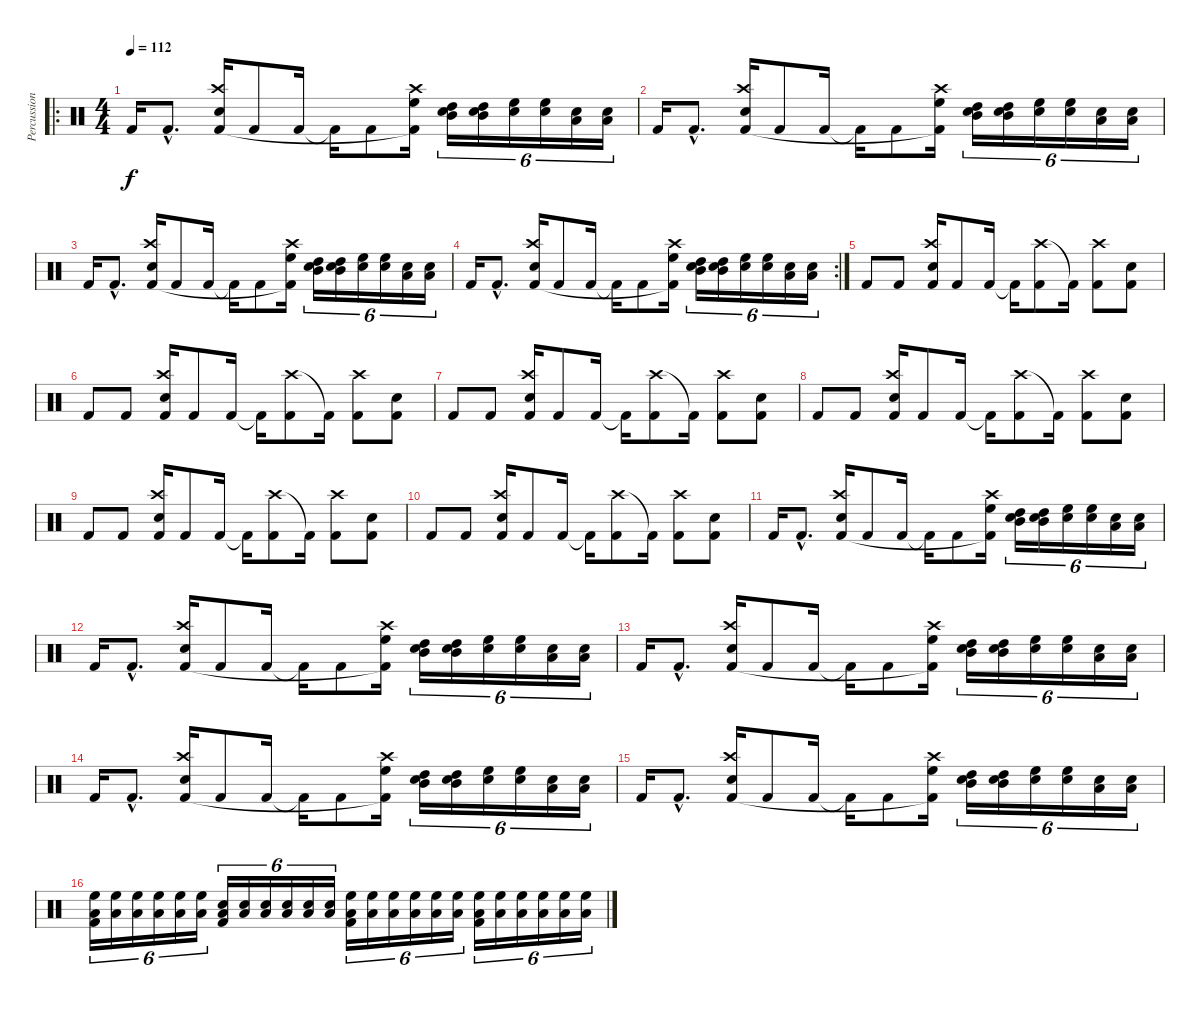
\track ("Percussion" "Percussion") {instrument percussion}
\staff {score}
\articulation defaults
\ro
\ts (4 4)
\tempo 112
\clef neutral
\ks c "Kick (hit) 2".16{dy f} "Kick (hit) 2"{hac}.8{d}
("Crash high (hit)" "Snare (hit) 2" "Kick (hit) 2").16 "Kick (hit) 2".8 "Kick (hit) 2".16 "Kick (hit) 2"{t}.16 "Kick (hit) 2".8 ("Crash high (hit)" "High Floor Tom (hit)" "Kick (hit) 2"{t}).16 ("Snare (hit) 2" "High Tom (hit)" "Mid Tom (hit)").16{tu (6 4)} ("Snare (hit) 2" "High Tom (hit)" "Mid Tom (hit)").16{tu (6 4)} ("Snare (hit) 2" "High Floor Tom (hit)").16{tu (6 4)} ("Snare (hit) 2" "High Floor Tom (hit)").16{tu (6 4)} ("Snare (hit) 2" "Low Tom (hit)").16{tu (6 4)} ("Snare (hit) 2" "Low Tom (hit)").16{tu (6 4)} |
"Kick (hit) 2".16 "Kick (hit) 2"{hac}.8{d} ("Crash high (hit)" "Snare (hit) 2" "Kick (hit) 2").16 "Kick (hit) 2".8 "Kick (hit) 2".16 "Kick (hit) 2"{t}.16 "Kick (hit) 2".8 ("Crash high (hit)" "High Floor Tom (hit)" "Kick (hit) 2"{t}).16 ("Snare (hit) 2" "High Tom (hit)" "Mid Tom (hit)").16{tu (6 4)} ("Snare (hit) 2" "High Tom (hit)" "Mid Tom (hit)").16{tu (6 4)} ("Snare (hit) 2" "High Floor Tom (hit)").16{tu (6 4)} ("Snare (hit) 2" "High Floor Tom (hit)").16{tu (6 4)} ("Snare (hit) 2" "Low Tom (hit)").16{tu (6 4)} ("Snare (hit) 2" "Low Tom (hit)").16{tu (6 4)} |
"Kick (hit) 2".16 "Kick (hit) 2"{hac}.8{d} ("Crash high (hit)" "Snare (hit) 2" "Kick (hit) 2").16 "Kick (hit) 2".8 "Kick (hit) 2".16 "Kick (hit) 2"{t}.16 "Kick (hit) 2".8 ("Crash high (hit)" "High Floor Tom (hit)" "Kick (hit) 2"{t}).16 ("Snare (hit) 2" "High Tom (hit)" "Mid Tom (hit)").16{tu (6 4)} ("Snare (hit) 2" "High Tom (hit)" "Mid Tom (hit)").16{tu (6 4)} ("Snare (hit) 2" "High Floor Tom (hit)").16{tu (6 4)} ("Snare (hit) 2" "High Floor Tom (hit)").16{tu (6 4)} ("Snare (hit) 2" "Low Tom (hit)").16{tu (6 4)} ("Snare (hit) 2" "Low Tom (hit)").16{tu (6 4)} |
\rc 2 "Kick (hit) 2".16 "Kick (hit) 2"{hac}.8{d}
("Crash high (hit)" "Snare (hit) 2" "Kick (hit) 2").16 "Kick (hit) 2".8 "Kick (hit) 2".16 "Kick (hit) 2"{t}.16 "Kick (hit) 2".8 ("Crash high (hit)" "High Floor Tom (hit)" "Kick (hit) 2"{t}).16 ("Snare (hit) 2" "High Tom (hit)" "Mid Tom (hit)").16{tu (6 4)} ("Snare (hit) 2" "High Tom (hit)" "Mid Tom (hit)").16{tu (6 4)} ("Snare (hit) 2" "High Floor Tom (hit)").16{tu (6 4)} ("Snare (hit) 2" "High Floor Tom (hit)").16{tu (6 4)} ("Snare (hit) 2" "Low Tom (hit)").16{tu (6 4)} ("Snare (hit) 2" "Low Tom (hit)").16{tu (6 4)} |
"Kick (hit) 2".8 "Kick (hit) 2".8 ("Crash high (hit)" "Snare (hit) 2" "Kick (hit) 2").16 "Kick (hit) 2".8 "Kick (hit) 2".16 "Kick (hit) 2"{t}.16 ("Crash high (hit)" "Kick (hit) 2").8 "Kick (hit) 2"{t}.16 ("Crash high (hit)" "Kick (hit) 2").8 ("Snare (hit) 2" "Kick (hit) 2").8 |
"Kick (hit) 2".8 "Kick (hit) 2".8 ("Crash high (hit)" "Snare (hit) 2" "Kick (hit) 2").16 "Kick (hit) 2".8 "Kick (hit) 2".16 "Kick (hit) 2"{t}.16 ("Crash high (hit)" "Kick (hit) 2").8 "Kick (hit) 2"{t}.16 ("Crash high (hit)" "Kick (hit) 2").8 ("Snare (hit) 2" "Kick (hit) 2").8 |
"Kick (hit) 2".8 "Kick (hit) 2".8 ("Crash high (hit)" "Snare (hit) 2" "Kick (hit) 2").16 "Kick (hit) 2".8 "Kick (hit) 2".16 "Kick (hit) 2"{t}.16 ("Crash high (hit)" "Kick (hit) 2").8 "Kick (hit) 2"{t}.16 ("Crash high (hit)" "Kick (hit) 2").8 ("Snare (hit) 2" "Kick (hit) 2").8 |
"Kick (hit) 2".8 "Kick (hit) 2".8 ("Crash high (hit)" "Snare (hit) 2" "Kick (hit) 2").16 "Kick (hit) 2".8 "Kick (hit) 2".16 "Kick (hit) 2"{t}.16 ("Crash high (hit)" "Kick (hit) 2").8 "Kick (hit) 2"{t}.16 ("Crash high (hit)" "Kick (hit) 2").8 ("Snare (hit) 2" "Kick (hit) 2").8 |
"Kick (hit) 2".8 "Kick (hit) 2".8 ("Crash high (hit)" "Snare (hit) 2" "Kick (hit) 2").16 "Kick (hit) 2".8 "Kick (hit) 2".16 "Kick (hit) 2"{t}.16 ("Crash high (hit)" "Kick (hit) 2").8 "Kick (hit) 2"{t}.16 ("Crash high (hit)" "Kick (hit) 2").8 ("Snare (hit) 2" "Kick (hit) 2").8 |
"Kick (hit) 2".8 "Kick (hit) 2".8 ("Crash high (hit)" "Snare (hit) 2" "Kick (hit) 2").16 "Kick (hit) 2".8 "Kick (hit) 2".16 "Kick (hit) 2"{t}.16 ("Crash high (hit)" "Kick (hit) 2").8 "Kick (hit) 2"{t}.16 ("Crash high (hit)" "Kick (hit) 2").8 ("Snare (hit) 2" "Kick (hit) 2").8 |
"Kick (hit) 2".16 "Kick (hit) 2"{hac}.8{d} ("Crash high (hit)" "Snare (hit) 2" "Kick (hit) 2").16 "Kick (hit) 2".8 "Kick (hit) 2".16 "Kick (hit) 2"{t}.16 "Kick (hit) 2".8 ("Crash high (hit)" "High Floor Tom (hit)" "Kick (hit) 2"{t}).16 ("Snare (hit) 2" "High Tom (hit)" "Mid Tom (hit)").16{tu (6 4)} ("Snare (hit) 2" "High Tom (hit)" "Mid Tom (hit)").16{tu (6 4)} ("Snare (hit) 2" "High Floor Tom (hit)").16{tu (6 4)} ("Snare (hit) 2" "High Floor Tom (hit)").16{tu (6 4)} ("Snare (hit) 2" "Low Tom (hit)").16{tu (6 4)} ("Snare (hit) 2" "Low Tom (hit)").16{tu (6 4)} |
"Kick (hit) 2".16 "Kick (hit) 2"{hac}.8{d} ("Crash high (hit)" "Snare (hit) 2" "Kick (hit) 2").16 "Kick (hit) 2".8 "Kick (hit) 2".16 "Kick (hit) 2"{t}.16 "Kick (hit) 2".8 ("Crash high (hit)" "High Floor Tom (hit)" "Kick (hit) 2"{t}).16 ("Snare (hit) 2" "High Tom (hit)" "Mid Tom (hit)").16{tu (6 4)} ("Snare (hit) 2" "High Tom (hit)" "Mid Tom (hit)").16{tu (6 4)} ("Snare (hit) 2" "High Floor Tom (hit)").16{tu (6 4)} ("Snare (hit) 2" "High Floor Tom (hit)").16{tu (6 4)} ("Snare (hit) 2" "Low Tom (hit)").16{tu (6 4)} ("Snare (hit) 2" "Low Tom (hit)").16{tu (6 4)} |
"Kick (hit) 2".16 "Kick (hit) 2"{hac}.8{d} ("Crash high (hit)" "Snare (hit) 2" "Kick (hit) 2").16 "Kick (hit) 2".8 "Kick (hit) 2".16 "Kick (hit) 2"{t}.16 "Kick (hit) 2".8 ("Crash high (hit)" "High Floor Tom (hit)" "Kick (hit) 2"{t}).16 ("Snare (hit) 2" "High Tom (hit)" "Mid Tom (hit)").16{tu (6 4)} ("Snare (hit) 2" "High Tom (hit)" "Mid Tom (hit)").16{tu (6 4)} ("Snare (hit) 2" "High Floor Tom (hit)").16{tu (6 4)} ("Snare (hit) 2" "High Floor Tom (hit)").16{tu (6 4)} ("Snare (hit) 2" "Low Tom (hit)").16{tu (6 4)} ("Snare (hit) 2" "Low Tom (hit)").16{tu (6 4)} |
"Kick (hit) 2".16 "Kick (hit) 2"{hac}.8{d} ("Crash high (hit)" "Snare (hit) 2" "Kick (hit) 2").16 "Kick (hit) 2".8 "Kick (hit) 2".16 "Kick (hit) 2"{t}.16 "Kick (hit) 2".8 ("Crash high (hit)" "High Floor Tom (hit)" "Kick (hit) 2"{t}).16 ("Snare (hit) 2" "High Tom (hit)" "Mid Tom (hit)").16{tu (6 4)} ("Snare (hit) 2" "High Tom (hit)" "Mid Tom (hit)").16{tu (6 4)} ("Snare (hit) 2" "High Floor Tom (hit)").16{tu (6 4)} ("Snare (hit) 2" "High Floor Tom (hit)").16{tu (6 4)} ("Snare (hit) 2" "Low Tom (hit)").16{tu (6 4)} ("Snare (hit) 2" "Low Tom (hit)").16{tu (6 4)} |
"Kick (hit) 2".16 "Kick (hit) 2"{hac}.8{d} ("Crash high (hit)" "Snare (hit) 2" "Kick (hit) 2").16 "Kick (hit) 2".8 "Kick (hit) 2".16 "Kick (hit) 2"{t}.16 "Kick (hit) 2".8 ("Crash high (hit)" "High Floor Tom (hit)" "Kick (hit) 2"{t}).16 ("Snare (hit) 2" "High Tom (hit)" "Mid Tom (hit)").16{tu (6 4)} ("Snare (hit) 2" "High Tom (hit)" "Mid Tom (hit)").16{tu (6 4)} ("Snare (hit) 2" "High Floor Tom (hit)").16{tu (6 4)} ("Snare (hit) 2" "High Floor Tom (hit)").16{tu (6 4)} ("Snare (hit) 2" "Low Tom (hit)").16{tu (6 4)} ("Snare (hit) 2" "Low Tom (hit)").16{tu (6 4)} |
("High Floor Tom (hit)" "Low Tom (hit)" "Kick (hit) 2").16{tu (6 4)} ("High Floor Tom (hit)" "Low Tom (hit)").16{tu (6 4)} ("High Floor Tom (hit)" "Low Tom (hit)").16{tu (6 4)} ("High Floor Tom (hit)" "Low Tom (hit)").16{tu (6 4)} ("High Floor Tom (hit)" "Low Tom (hit)").16{tu (6 4)} ("High Floor Tom (hit)" "Low Tom (hit)").16{tu (6 4)} ("Snare (hit) 2" "Low Tom (hit)" "Kick (hit) 2").16{tu (6 4)} ("Snare (hit) 2" "Low Tom (hit)").16{tu (6 4)} ("Snare (hit) 2" "Low Tom (hit)").16{tu (6 4)} ("Snare (hit) 2" "Low Tom (hit)").16{tu (6 4)} ("Snare (hit) 2" "Low Tom (hit)").16{tu (6 4)} ("Snare (hit) 2" "Low Tom (hit)").16{tu (6 4)} ("High Floor Tom (hit)" "Low Tom (hit)" "Kick (hit) 2").16{tu (6 4)} ("High Floor Tom (hit)" "Low Tom (hit)").16{tu (6 4)} ("High Floor Tom (hit)" "Low Tom (hit)").16{tu (6 4)} ("High Floor Tom (hit)" "Low Tom (hit)").16{tu (6 4)} ("High Floor Tom (hit)" "Low Tom (hit)").16{tu (6 4)} ("High Floor Tom (hit)" "Low Tom (hit)").16{tu (6 4)} ("High Floor Tom (hit)" "Low Tom (hit)" "Kick (hit) 2").16{tu (6 4)} ("High Floor Tom (hit)" "Low Tom (hit)").16{tu (6 4)} ("High Floor Tom (hit)" "Low Tom (hit)").16{tu (6 4)} ("High Floor Tom (hit)" "Low Tom (hit)").16{tu (6 4)} ("High Floor Tom (hit)" "Low Tom (hit)").16{tu (6 4)} ("High Floor Tom (hit)" "Low Tom (hit)").16{tu (6 4)}
